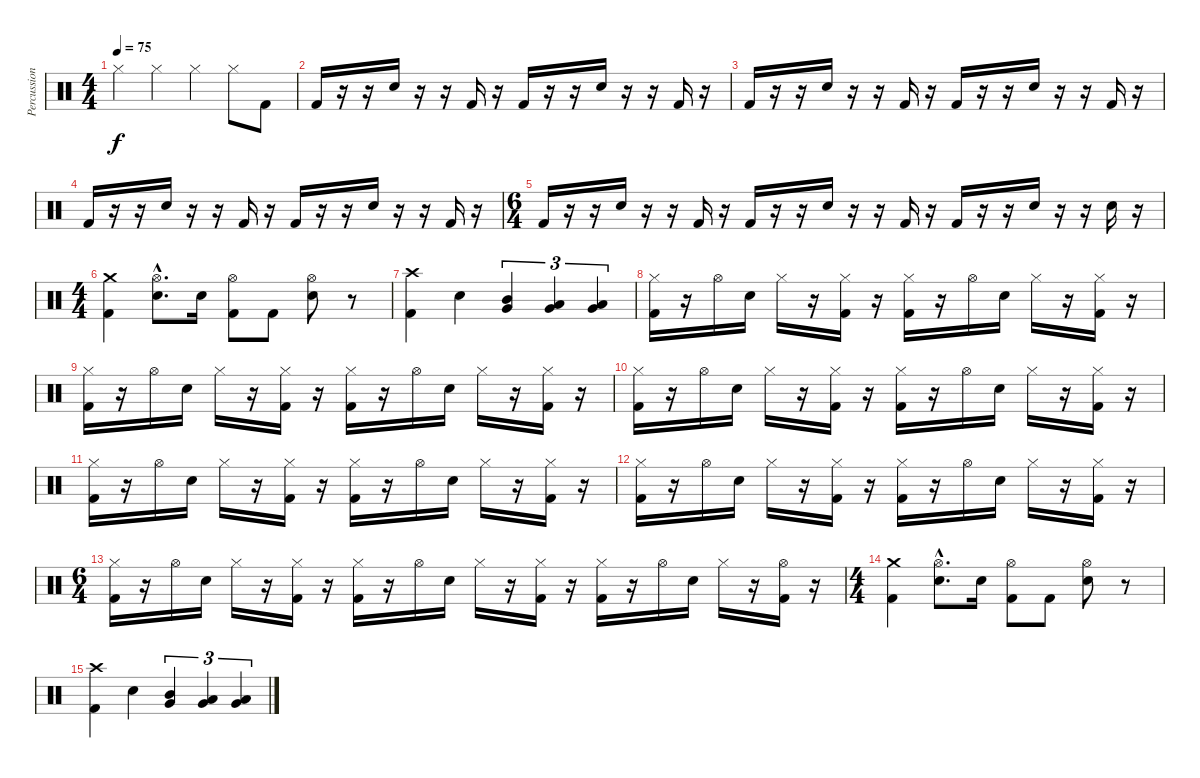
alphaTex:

\track ("Percussion" "Percussion") {instrument percussion}
\staff {score}
\articulation defaults
\ts (4 4)
\tempo 75
\clef neutral
\ks c "Hi-Hat (closed)".4{dy f} "Hi-Hat (closed)".4 "Hi-Hat (closed)".4 "Hi-Hat (closed)".8 "Kick (hit) 2".8
|
"Kick (hit) 2".16 r.16 r.16 "Snare (hit) 2".16 r.16 r.16 "Kick (hit) 2".16 r.16 "Kick (hit) 2".16 r.16 r.16 "Snare (hit) 2".16 r.16 r.16 "Kick (hit) 2".16 r.16 |
"Kick (hit) 2".16 r.16 r.16 "Snare (hit) 2".16 r.16 r.16 "Kick (hit) 2".16 r.16 "Kick (hit) 2".16 r.16 r.16 "Snare (hit) 2".16 r.16 r.16 "Kick (hit) 2".16 r.16 |
"Kick (hit) 2".16 r.16 r.16 "Snare (hit) 2".16 r.16 r.16 "Kick (hit) 2".16 r.16 "Kick (hit) 2".16 r.16 r.16 "Snare (hit) 2".16 r.16 r.16 "Kick (hit) 2".16 r.16 |
\ts (6 4)
"Kick (hit) 2".16 r.16 r.16 "Snare (hit) 2".16 r.16 r.16 "Kick (hit) 2".16 r.16 "Kick (hit) 2".16 r.16 r.16 "Snare (hit) 2".16 r.16 r.16 "Kick (hit) 2".16 r.16 "Kick (hit) 2".16 r.16 r.16 "Snare (hit) 2".16 r.16 r.16 "Snare (hit) 2".16 r.16 |
\ts (4 4)
("Crash medium (hit)" "Kick (hit) 2").4 ("Hi-Hat (open)"{hac} "Snare (hit) 2"{hac}).8{d} "Snare (hit) 2".16 ("Hi-Hat (open)" "Kick (hit) 2").8 "Kick (hit) 2".8 ("Hi-Hat (open)" "Snare (hit) 2").8 r.8 |
("Crash high (hit)" "Kick (hit) 2").4 "Snare (hit) 2".4 ("Mid Tom (hit)" "Very Low Tom (hit)").4{tu (3 2)} ("Low Tom (hit)" "Very Low Tom (hit)").4{tu (3 2)} ("Low Tom (hit)" "Very Low Tom (hit)").4{tu (3 2)} |
("Hi-Hat (closed)" "Kick (hit) 2").16 r.16 "Hi-Hat (open)".16 "Snare (hit) 2".16 "Hi-Hat (closed)".16 r.16 ("Hi-Hat (closed)" "Kick (hit) 2").16 r.16 ("Hi-Hat (closed)" "Kick (hit) 2").16 r.16 "Hi-Hat (open)".16 "Snare (hit) 2".16 "Hi-Hat (closed)".16 r.16 ("Hi-Hat (closed)" "Kick (hit) 2").16 r.16 |
("Hi-Hat (closed)" "Kick (hit) 2").16 r.16 "Hi-Hat (open)".16 "Snare (hit) 2".16 "Hi-Hat (closed)".16 r.16 ("Hi-Hat (closed)" "Kick (hit) 2").16 r.16 ("Hi-Hat (closed)" "Kick (hit) 2").16 r.16 "Hi-Hat (open)".16 "Snare (hit) 2".16 "Hi-Hat (closed)".16 r.16 ("Hi-Hat (closed)" "Kick (hit) 2").16 r.16 |
("Hi-Hat (closed)" "Kick (hit) 2").16 r.16 "Hi-Hat (open)".16 "Snare (hit) 2".16 "Hi-Hat (closed)".16 r.16 ("Hi-Hat (closed)" "Kick (hit) 2").16 r.16 ("Hi-Hat (closed)" "Kick (hit) 2").16 r.16 "Hi-Hat (open)".16 "Snare (hit) 2".16 "Hi-Hat (closed)".16 r.16 ("Hi-Hat (closed)" "Kick (hit) 2").16 r.16 |
("Hi-Hat (closed)" "Kick (hit) 2").16 r.16 "Hi-Hat (open)".16 "Snare (hit) 2".16 "Hi-Hat (closed)".16 r.16 ("Hi-Hat (closed)" "Kick (hit) 2").16 r.16 ("Hi-Hat (closed)" "Kick (hit) 2").16 r.16 "Hi-Hat (open)".16 "Snare (hit) 2".16 "Hi-Hat (closed)".16 r.16 ("Hi-Hat (closed)" "Kick (hit) 2").16 r.16 |
("Hi-Hat (closed)" "Kick (hit) 2").16 r.16 "Hi-Hat (open)".16 "Snare (hit) 2".16 "Hi-Hat (closed)".16 r.16 ("Hi-Hat (closed)" "Kick (hit) 2").16 r.16 ("Hi-Hat (closed)" "Kick (hit) 2").16 r.16 "Hi-Hat (open)".16 "Snare (hit) 2".16 "Hi-Hat (closed)".16 r.16 ("Hi-Hat (closed)" "Kick (hit) 2").16 r.16 |
\ts (6 4)
("Hi-Hat (closed)" "Kick (hit) 2").16 r.16 "Hi-Hat (open)".16 "Snare (hit) 2".16 "Hi-Hat (closed)".16 r.16 ("Hi-Hat (closed)" "Kick (hit) 2").16 r.16 ("Hi-Hat (closed)" "Kick (hit) 2").16 r.16 "Hi-Hat (open)".16 "Snare (hit) 2".16 "Hi-Hat (closed)".16 r.16 ("Hi-Hat (closed)" "Kick (hit) 2").16 r.16 ("Hi-Hat (closed)" "Kick (hit) 2").16 r.16 "Hi-Hat (open)".16 "Snare (hit) 2".16 "Hi-Hat (closed)".16 r.16 ("Hi-Hat (open)" "Kick (hit) 2").16 r.16 |
\ts (4 4)
("Crash medium (hit)" "Kick (hit) 2").4 ("Hi-Hat (open)"{hac} "Snare (hit) 2"{hac}).8{d} "Snare (hit) 2".16 ("Hi-Hat (open)" "Kick (hit) 2").8 "Kick (hit) 2".8 ("Hi-Hat (open)" "Snare (hit) 2").8 r.8 |
("Crash high (hit)" "Kick (hit) 2").4 "Snare (hit) 2".4 ("Mid Tom (hit)" "Very Low Tom (hit)").4{tu (3 2)} ("Low Tom (hit)" "Very Low Tom (hit)").4{tu (3 2)} ("Low Tom (hit)" "Very Low Tom (hit)").4{tu (3 2)}
